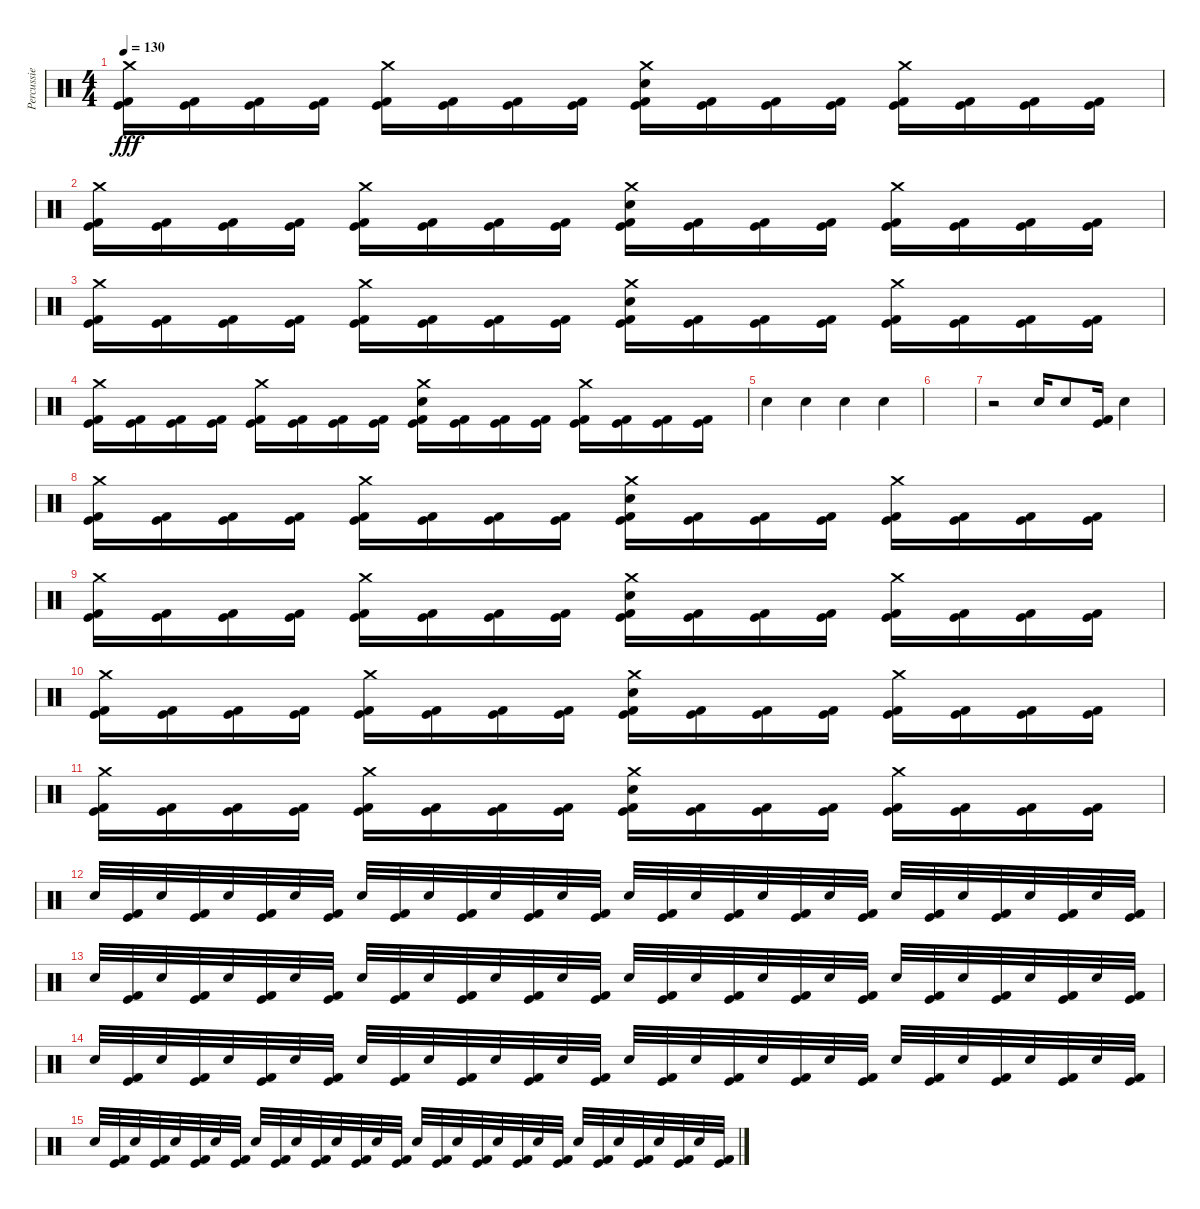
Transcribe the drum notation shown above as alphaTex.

\track ("Percussie" "Percussie") {instrument percussion}
\staff {score}
\articulation defaults
\ts (4 4)
\tempo 130
\clef neutral
\ks c
("Crash medium (hit)" "Kick (hit)" "Kick (hit) 2").16{dy fff} ("Kick (hit)" "Kick (hit) 2").16 ("Kick (hit)" "Kick (hit) 2").16 ("Kick (hit)" "Kick (hit) 2").16 ("Crash medium (hit)" "Kick (hit)" "Kick (hit) 2").16 ("Kick (hit)" "Kick (hit) 2").16 ("Kick (hit)" "Kick (hit) 2").16 ("Kick (hit)" "Kick (hit) 2").16 ("Crash medium (hit)" "Electric Snare (hit)" "Kick (hit)" "Kick (hit) 2").16 ("Kick (hit)" "Kick (hit) 2").16 ("Kick (hit)" "Kick (hit) 2").16 ("Kick (hit)" "Kick (hit) 2").16 ("Crash medium (hit)" "Kick (hit)" "Kick (hit) 2").16 ("Kick (hit)" "Kick (hit) 2").16 ("Kick (hit)" "Kick (hit) 2").16 ("Kick (hit)" "Kick (hit) 2").16 |
("Crash medium (hit)" "Kick (hit)" "Kick (hit) 2").16 ("Kick (hit)" "Kick (hit) 2").16 ("Kick (hit)" "Kick (hit) 2").16 ("Kick (hit)" "Kick (hit) 2").16 ("Crash medium (hit)" "Kick (hit)" "Kick (hit) 2").16 ("Kick (hit)" "Kick (hit) 2").16 ("Kick (hit)" "Kick (hit) 2").16 ("Kick (hit)" "Kick (hit) 2").16 ("Crash medium (hit)" "Electric Snare (hit)" "Kick (hit)" "Kick (hit) 2").16 ("Kick (hit)" "Kick (hit) 2").16 ("Kick (hit)" "Kick (hit) 2").16 ("Kick (hit)" "Kick (hit) 2").16 ("Crash medium (hit)" "Kick (hit)" "Kick (hit) 2").16 ("Kick (hit)" "Kick (hit) 2").16 ("Kick (hit)" "Kick (hit) 2").16 ("Kick (hit)" "Kick (hit) 2").16 |
("Crash medium (hit)" "Kick (hit)" "Kick (hit) 2").16 ("Kick (hit)" "Kick (hit) 2").16 ("Kick (hit)" "Kick (hit) 2").16 ("Kick (hit)" "Kick (hit) 2").16 ("Crash medium (hit)" "Kick (hit)" "Kick (hit) 2").16 ("Kick (hit)" "Kick (hit) 2").16 ("Kick (hit)" "Kick (hit) 2").16 ("Kick (hit)" "Kick (hit) 2").16 ("Crash medium (hit)" "Electric Snare (hit)" "Kick (hit)" "Kick (hit) 2").16 ("Kick (hit)" "Kick (hit) 2").16 ("Kick (hit)" "Kick (hit) 2").16 ("Kick (hit)" "Kick (hit) 2").16 ("Crash medium (hit)" "Kick (hit)" "Kick (hit) 2").16 ("Kick (hit)" "Kick (hit) 2").16 ("Kick (hit)" "Kick (hit) 2").16 ("Kick (hit)" "Kick (hit) 2").16 |
("Crash medium (hit)" "Kick (hit)" "Kick (hit) 2").16 ("Kick (hit)" "Kick (hit) 2").16 ("Kick (hit)" "Kick (hit) 2").16 ("Kick (hit)" "Kick (hit) 2").16 ("Crash medium (hit)" "Kick (hit)" "Kick (hit) 2").16 ("Kick (hit)" "Kick (hit) 2").16 ("Kick (hit)" "Kick (hit) 2").16 ("Kick (hit)" "Kick (hit) 2").16 ("Crash medium (hit)" "Electric Snare (hit)" "Kick (hit)" "Kick (hit) 2").16 ("Kick (hit)" "Kick (hit) 2").16 ("Kick (hit)" "Kick (hit) 2").16 ("Kick (hit)" "Kick (hit) 2").16 ("Crash medium (hit)" "Kick (hit)" "Kick (hit) 2").16 ("Kick (hit)" "Kick (hit) 2").16 ("Kick (hit)" "Kick (hit) 2").16 ("Kick (hit)" "Kick (hit) 2").16 |
"Electric Snare (hit)".4 "Electric Snare (hit)".4 "Electric Snare (hit)".4 "Electric Snare (hit)".4 |
|
r.2 "Electric Snare (hit)".16 "Electric Snare (hit)".8 ("Kick (hit)" "Kick (hit) 2").16 "Electric Snare (hit)".4 |
("Crash medium (hit)" "Kick (hit)" "Kick (hit) 2").16 ("Kick (hit)" "Kick (hit) 2").16 ("Kick (hit)" "Kick (hit) 2").16 ("Kick (hit)" "Kick (hit) 2").16 ("Crash medium (hit)" "Kick (hit)" "Kick (hit) 2").16 ("Kick (hit)" "Kick (hit) 2").16 ("Kick (hit)" "Kick (hit) 2").16 ("Kick (hit)" "Kick (hit) 2").16 ("Crash medium (hit)" "Electric Snare (hit)" "Kick (hit)" "Kick (hit) 2").16 ("Kick (hit)" "Kick (hit) 2").16 ("Kick (hit)" "Kick (hit) 2").16 ("Kick (hit)" "Kick (hit) 2").16 ("Crash medium (hit)" "Kick (hit)" "Kick (hit) 2").16 ("Kick (hit)" "Kick (hit) 2").16 ("Kick (hit)" "Kick (hit) 2").16 ("Kick (hit)" "Kick (hit) 2").16 |
("Crash medium (hit)" "Kick (hit)" "Kick (hit) 2").16 ("Kick (hit)" "Kick (hit) 2").16 ("Kick (hit)" "Kick (hit) 2").16 ("Kick (hit)" "Kick (hit) 2").16 ("Crash medium (hit)" "Kick (hit)" "Kick (hit) 2").16 ("Kick (hit)" "Kick (hit) 2").16 ("Kick (hit)" "Kick (hit) 2").16 ("Kick (hit)" "Kick (hit) 2").16 ("Crash medium (hit)" "Electric Snare (hit)" "Kick (hit)" "Kick (hit) 2").16 ("Kick (hit)" "Kick (hit) 2").16 ("Kick (hit)" "Kick (hit) 2").16 ("Kick (hit)" "Kick (hit) 2").16 ("Crash medium (hit)" "Kick (hit)" "Kick (hit) 2").16 ("Kick (hit)" "Kick (hit) 2").16 ("Kick (hit)" "Kick (hit) 2").16 ("Kick (hit)" "Kick (hit) 2").16 |
("Crash medium (hit)" "Kick (hit)" "Kick (hit) 2").16 ("Kick (hit)" "Kick (hit) 2").16 ("Kick (hit)" "Kick (hit) 2").16 ("Kick (hit)" "Kick (hit) 2").16 ("Crash medium (hit)" "Kick (hit)" "Kick (hit) 2").16 ("Kick (hit)" "Kick (hit) 2").16 ("Kick (hit)" "Kick (hit) 2").16 ("Kick (hit)" "Kick (hit) 2").16 ("Crash medium (hit)" "Electric Snare (hit)" "Kick (hit)" "Kick (hit) 2").16 ("Kick (hit)" "Kick (hit) 2").16 ("Kick (hit)" "Kick (hit) 2").16 ("Kick (hit)" "Kick (hit) 2").16 ("Crash medium (hit)" "Kick (hit)" "Kick (hit) 2").16 ("Kick (hit)" "Kick (hit) 2").16 ("Kick (hit)" "Kick (hit) 2").16 ("Kick (hit)" "Kick (hit) 2").16 |
("Crash medium (hit)" "Kick (hit)" "Kick (hit) 2").16 ("Kick (hit)" "Kick (hit) 2").16 ("Kick (hit)" "Kick (hit) 2").16 ("Kick (hit)" "Kick (hit) 2").16 ("Crash medium (hit)" "Kick (hit)" "Kick (hit) 2").16 ("Kick (hit)" "Kick (hit) 2").16 ("Kick (hit)" "Kick (hit) 2").16 ("Kick (hit)" "Kick (hit) 2").16 ("Crash medium (hit)" "Electric Snare (hit)" "Kick (hit)" "Kick (hit) 2").16 ("Kick (hit)" "Kick (hit) 2").16 ("Kick (hit)" "Kick (hit) 2").16 ("Kick (hit)" "Kick (hit) 2").16 ("Crash medium (hit)" "Kick (hit)" "Kick (hit) 2").16 ("Kick (hit)" "Kick (hit) 2").16 ("Kick (hit)" "Kick (hit) 2").16 ("Kick (hit)" "Kick (hit) 2").16 |
"Electric Snare (hit)".32 ("Kick (hit)" "Kick (hit) 2").32 "Electric Snare (hit)".32 ("Kick (hit)" "Kick (hit) 2").32 "Electric Snare (hit)".32 ("Kick (hit)" "Kick (hit) 2").32 "Electric Snare (hit)".32 ("Kick (hit)" "Kick (hit) 2").32 "Electric Snare (hit)".32 ("Kick (hit)" "Kick (hit) 2").32 "Electric Snare (hit)".32 ("Kick (hit)" "Kick (hit) 2").32 "Electric Snare (hit)".32 ("Kick (hit)" "Kick (hit) 2").32 "Electric Snare (hit)".32 ("Kick (hit)" "Kick (hit) 2").32 "Electric Snare (hit)".32 ("Kick (hit)" "Kick (hit) 2").32 "Electric Snare (hit)".32 ("Kick (hit)" "Kick (hit) 2").32 "Electric Snare (hit)".32 ("Kick (hit)" "Kick (hit) 2").32 "Electric Snare (hit)".32 ("Kick (hit)" "Kick (hit) 2").32 "Electric Snare (hit)".32 ("Kick (hit)" "Kick (hit) 2").32 "Electric Snare (hit)".32 ("Kick (hit)" "Kick (hit) 2").32 "Electric Snare (hit)".32 ("Kick (hit)" "Kick (hit) 2").32 "Electric Snare (hit)".32 ("Kick (hit)" "Kick (hit) 2").32 |
"Electric Snare (hit)".32 ("Kick (hit)" "Kick (hit) 2").32 "Electric Snare (hit)".32 ("Kick (hit)" "Kick (hit) 2").32 "Electric Snare (hit)".32 ("Kick (hit)" "Kick (hit) 2").32 "Electric Snare (hit)".32 ("Kick (hit)" "Kick (hit) 2").32 "Electric Snare (hit)".32 ("Kick (hit)" "Kick (hit) 2").32 "Electric Snare (hit)".32 ("Kick (hit)" "Kick (hit) 2").32 "Electric Snare (hit)".32 ("Kick (hit)" "Kick (hit) 2").32 "Electric Snare (hit)".32 ("Kick (hit)" "Kick (hit) 2").32 "Electric Snare (hit)".32 ("Kick (hit)" "Kick (hit) 2").32 "Electric Snare (hit)".32 ("Kick (hit)" "Kick (hit) 2").32 "Electric Snare (hit)".32 ("Kick (hit)" "Kick (hit) 2").32 "Electric Snare (hit)".32 ("Kick (hit)" "Kick (hit) 2").32 "Electric Snare (hit)".32 ("Kick (hit)" "Kick (hit) 2").32 "Electric Snare (hit)".32 ("Kick (hit)" "Kick (hit) 2").32 "Electric Snare (hit)".32 ("Kick (hit)" "Kick (hit) 2").32 "Electric Snare (hit)".32 ("Kick (hit)" "Kick (hit) 2").32 |
"Electric Snare (hit)".32 ("Kick (hit)" "Kick (hit) 2").32 "Electric Snare (hit)".32 ("Kick (hit)" "Kick (hit) 2").32 "Electric Snare (hit)".32 ("Kick (hit)" "Kick (hit) 2").32 "Electric Snare (hit)".32 ("Kick (hit)" "Kick (hit) 2").32 "Electric Snare (hit)".32 ("Kick (hit)" "Kick (hit) 2").32 "Electric Snare (hit)".32 ("Kick (hit)" "Kick (hit) 2").32 "Electric Snare (hit)".32 ("Kick (hit)" "Kick (hit) 2").32 "Electric Snare (hit)".32 ("Kick (hit)" "Kick (hit) 2").32 "Electric Snare (hit)".32 ("Kick (hit)" "Kick (hit) 2").32 "Electric Snare (hit)".32 ("Kick (hit)" "Kick (hit) 2").32 "Electric Snare (hit)".32 ("Kick (hit)" "Kick (hit) 2").32 "Electric Snare (hit)".32 ("Kick (hit)" "Kick (hit) 2").32 "Electric Snare (hit)".32 ("Kick (hit)" "Kick (hit) 2").32 "Electric Snare (hit)".32 ("Kick (hit)" "Kick (hit) 2").32 "Electric Snare (hit)".32 ("Kick (hit)" "Kick (hit) 2").32 "Electric Snare (hit)".32 ("Kick (hit)" "Kick (hit) 2").32 |
"Electric Snare (hit)".32 ("Kick (hit)" "Kick (hit) 2").32 "Electric Snare (hit)".32 ("Kick (hit)" "Kick (hit) 2").32 "Electric Snare (hit)".32 ("Kick (hit)" "Kick (hit) 2").32 "Electric Snare (hit)".32 ("Kick (hit)" "Kick (hit) 2").32 "Electric Snare (hit)".32 ("Kick (hit)" "Kick (hit) 2").32 "Electric Snare (hit)".32 ("Kick (hit)" "Kick (hit) 2").32 "Electric Snare (hit)".32 ("Kick (hit)" "Kick (hit) 2").32 "Electric Snare (hit)".32 ("Kick (hit)" "Kick (hit) 2").32 "Electric Snare (hit)".32 ("Kick (hit)" "Kick (hit) 2").32 "Electric Snare (hit)".32 ("Kick (hit)" "Kick (hit) 2").32 "Electric Snare (hit)".32 ("Kick (hit)" "Kick (hit) 2").32 "Electric Snare (hit)".32 ("Kick (hit)" "Kick (hit) 2").32 "Electric Snare (hit)".32 ("Kick (hit)" "Kick (hit) 2").32 "Electric Snare (hit)".32 ("Kick (hit)" "Kick (hit) 2").32 "Electric Snare (hit)".32 ("Kick (hit)" "Kick (hit) 2").32 "Electric Snare (hit)".32 ("Kick (hit)" "Kick (hit) 2").32
